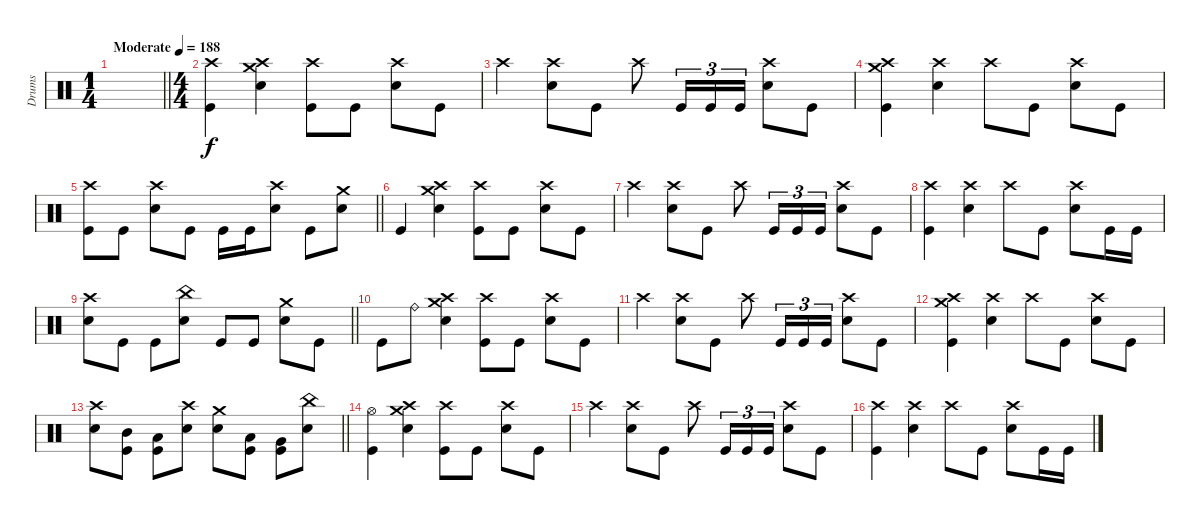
\track ("Drums" "Drums") {instrument percussion}
\staff
\articulation defaults
\ts (1 4)
\tempo (188 "Moderate")
\clef neutral
\barLineRight lightlight
\ks c
|
\ts (4 4)
("Crash high (hit)" "Kick (hit)").4 ("Crash medium (hit)" "Crash high (hit)" "Electric Snare (hit)").4 ("Crash high (hit)" "Kick (hit)").8 "Kick (hit)".8 ("Crash high (hit)" "Electric Snare (hit)").8 "Kick (hit)".8 |
"Crash high (hit)".4 ("Crash high (hit)" "Electric Snare (hit)").8 "Kick (hit)".8 "Crash high (hit)".8 "Kick (hit)".16{tu (3 2)} "Kick (hit)".16{tu (3 2)} "Kick (hit)".16{tu (3 2)} ("Crash high (hit)" "Electric Snare (hit)").8 "Kick (hit)".8 |
("Crash medium (hit)" "Crash high (hit)" "Kick (hit)").4 ("Crash high (hit)" "Electric Snare (hit)").4 "Crash high (hit)".8 "Kick (hit)".8 ("Crash high (hit)" "Electric Snare (hit)").8 "Kick (hit)".8 |
\barLineRight lightlight
("Crash high (hit)" "Kick (hit)").8 "Kick (hit)".8 ("Crash high (hit)" "Electric Snare (hit)").8 "Kick (hit)".8 "Kick (hit)".16 "Kick (hit)".16 ("Crash high (hit)" "Electric Snare (hit)").8 "Kick (hit)".8 ("Crash medium (hit)" "Electric Snare (hit)").8 |
"Kick (hit)".4 ("Crash medium (hit)" "Crash high (hit)" "Electric Snare (hit)").4 ("Crash high (hit)" "Kick (hit)").8 "Kick (hit)".8 ("Crash high (hit)" "Electric Snare (hit)").8 "Kick (hit)".8 |
"Crash high (hit)".4 ("Crash high (hit)" "Electric Snare (hit)").8 "Kick (hit)".8 "Crash high (hit)".8 "Kick (hit)".16{tu (3 2)} "Kick (hit)".16{tu (3 2)} "Kick (hit)".16{tu (3 2)} ("Crash high (hit)" "Electric Snare (hit)").8 "Kick (hit)".8 |
("Crash high (hit)" "Kick (hit)").4 ("Crash high (hit)" "Electric Snare (hit)").4 "Crash high (hit)".8 "Kick (hit)".8 ("Crash high (hit)" "Electric Snare (hit)").8 "Kick (hit)".16 "Kick (hit)".16 |
\barLineRight lightlight
("Crash high (hit)" "Electric Snare (hit)").8 "Kick (hit)".8 "Kick (hit)".8 ("China (hit)" "Electric Snare (hit)").8 "Kick (hit)".8 "Kick (hit)".8 ("Crash medium (hit)" "Electric Snare (hit)").8 "Kick (hit)".8 |
"Kick (hit)".8 "Ride (bell)".8 ("Crash medium (hit)" "Crash high (hit)" "Electric Snare (hit)").4 ("Crash high (hit)" "Kick (hit)").8 "Kick (hit)".8 ("Crash high (hit)" "Electric Snare (hit)").8 "Kick (hit)".8 |
"Crash high (hit)".4 ("Crash high (hit)" "Electric Snare (hit)").8 "Kick (hit)".8 "Crash high (hit)".8 "Kick (hit)".16{tu (3 2)} "Kick (hit)".16{tu (3 2)} "Kick (hit)".16{tu (3 2)} ("Crash high (hit)" "Electric Snare (hit)").8 "Kick (hit)".8 |
("Crash medium (hit)" "Crash high (hit)" "Kick (hit)").4 ("Crash high (hit)" "Electric Snare (hit)").4 "Crash high (hit)".8 "Kick (hit)".8 ("Crash high (hit)" "Electric Snare (hit)").8 "Kick (hit)".8 |
\barLineRight lightlight
("Crash high (hit)" "Electric Snare (hit)").8 ("Mid Tom (hit)" "Kick (hit)").8 ("Low Tom (hit)" "Kick (hit)").8 ("Crash high (hit)" "Electric Snare (hit)").8 ("Crash medium (hit)" "Electric Snare (hit)").8 ("Low Tom (hit)" "Kick (hit)").8 ("Very Low Tom (hit)" "Kick (hit)").8 ("China (hit)" "Electric Snare (hit)").8 |
("Hi-Hat (open)" "Kick (hit)").4 ("Crash medium (hit)" "Crash high (hit)" "Electric Snare (hit)").4 ("Crash high (hit)" "Kick (hit)").8 "Kick (hit)".8 ("Crash high (hit)" "Electric Snare (hit)").8 "Kick (hit)".8 |
"Crash high (hit)".4 ("Crash high (hit)" "Electric Snare (hit)").8 "Kick (hit)".8 "Crash high (hit)".8 "Kick (hit)".16{tu (3 2)} "Kick (hit)".16{tu (3 2)} "Kick (hit)".16{tu (3 2)} ("Crash high (hit)" "Electric Snare (hit)").8 "Kick (hit)".8 |
("Crash high (hit)" "Kick (hit)").4 ("Crash high (hit)" "Electric Snare (hit)").4 "Crash high (hit)".8 "Kick (hit)".8 ("Crash high (hit)" "Electric Snare (hit)").8 "Kick (hit)".16 "Kick (hit)".16
